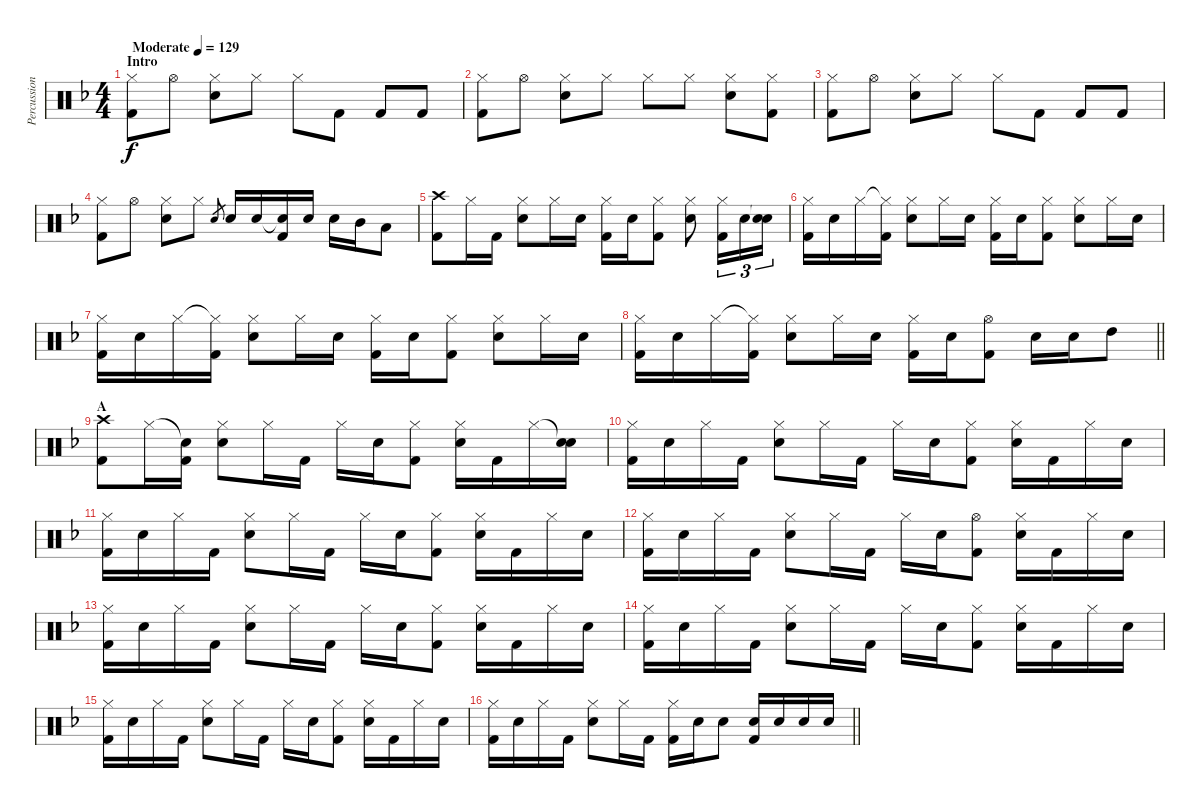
\track ("Percussion" "Percussion") {instrument percussion}
\staff {score}
\articulation defaults
\ts (4 4)
\section ("" "Intro")
\tempo (129 "Moderate")
\clef neutral
\ks f
("Hi-Hat (closed)" "Kick (hit) 2").8{dy f} "Hi-Hat (open)".8 ("Hi-Hat (closed)" "Snare (hit) 2").8 "Hi-Hat (closed)".8 "Hi-Hat (closed)".8 "Kick (hit) 2".8 "Kick (hit) 2".8 "Kick (hit) 2".8 |
("Hi-Hat (closed)" "Kick (hit) 2").8 "Hi-Hat (open)".8 ("Hi-Hat (closed)" "Snare (hit) 2").8 "Hi-Hat (closed)".8 "Hi-Hat (closed)".8 "Hi-Hat (closed)".8 ("Hi-Hat (closed)" "Snare (hit) 2").8 ("Hi-Hat (closed)" "Kick (hit) 2").8 |
("Hi-Hat (closed)" "Kick (hit) 2").8 "Hi-Hat (open)".8 ("Hi-Hat (closed)" "Snare (hit) 2").8 "Hi-Hat (closed)".8 "Hi-Hat (closed)".8 "Kick (hit) 2".8 "Kick (hit) 2".8 "Kick (hit) 2".8 |
("Hi-Hat (closed)" "Kick (hit) 2").8 "Hi-Hat (open)".8 ("Hi-Hat (closed)" "Snare (hit) 2").8 "Hi-Hat (closed)".8 "Electric Snare (hit)".8{gr} "Electric Snare (hit)".16{volume 13} "Electric Snare (hit)".16 ("Snare (hit)"{t} "Kick (hit) 2").16 "Electric Snare (hit)".16 "Electric Snare (hit)".16 "Mid Tom (hit)".16 "Low Tom (hit)".8 |
("Crash high (hit)" "Kick (hit) 2").8 "Hi-Hat (closed)".16 "Kick (hit) 2".16 ("Hi-Hat (closed)" "Electric Snare (hit)").8 "Hi-Hat (closed)".16 "Electric Snare (hit)".16 ("Hi-Hat (closed)" "Kick (hit) 2").16 "Electric Snare (hit)".16 ("Hi-Hat (closed)" "Kick (hit) 2").8 ("Hi-Hat (closed)" "Electric Snare (hit)").8 ("Hi-Hat (closed)" "Kick (hit) 2").16{tu (3 2)} "Electric Snare (hit)".16{tu (3 2)} ("Snare (hit)"{t} "Electric Snare (hit)").16{tu (3 2)} |
("Hi-Hat (closed)" "Kick (hit) 2").16 "Electric Snare (hit)".16 "Hi-Hat (closed)".16 ("Hi-Hat (closed)"{t} "Kick (hit) 2").16 ("Hi-Hat (closed)" "Electric Snare (hit)").8 "Hi-Hat (closed)".16 "Electric Snare (hit)".16 ("Hi-Hat (closed)" "Kick (hit) 2").16 "Electric Snare (hit)".16 ("Hi-Hat (closed)" "Kick (hit) 2").8 ("Hi-Hat (closed)" "Electric Snare (hit)").8 "Hi-Hat (closed)".16 "Electric Snare (hit)".16 |
("Hi-Hat (closed)" "Kick (hit) 2").16 "Electric Snare (hit)".16 "Hi-Hat (closed)".16 ("Hi-Hat (closed)"{t} "Kick (hit) 2").16 ("Hi-Hat (closed)" "Electric Snare (hit)").8 "Hi-Hat (closed)".16 "Electric Snare (hit)".16 ("Hi-Hat (closed)" "Kick (hit) 2").16 "Electric Snare (hit)".16 ("Hi-Hat (closed)" "Kick (hit) 2").8 ("Hi-Hat (closed)" "Electric Snare (hit)").8 "Hi-Hat (closed)".16 "Electric Snare (hit)".16 |
\barLineRight lightlight
("Hi-Hat (closed)" "Kick (hit) 2").16 "Electric Snare (hit)".16 "Hi-Hat (closed)".16 ("Hi-Hat (closed)"{t} "Kick (hit) 2").16 ("Hi-Hat (closed)" "Electric Snare (hit)").8 "Hi-Hat (closed)".16 "Electric Snare (hit)".16 ("Hi-Hat (closed)" "Kick (hit) 2").16 "Electric Snare (hit)".16 ("Hi-Hat (open)" "Kick (hit) 2").8 "Electric Snare (hit)".16 "Electric Snare (hit)".16 "High Tom (hit)".8 |
\section ("" "A")
("Crash high (hit)" "Kick (hit) 2").8 "Hi-Hat (closed)".16 ("Snare (hit)"{t} "Kick (hit) 2").16 ("Hi-Hat (closed)" "Electric Snare (hit)").8 "Hi-Hat (closed)".16 "Kick (hit) 2".16 "Hi-Hat (closed)".16 "Electric Snare (hit)".16 ("Hi-Hat (closed)" "Kick (hit) 2").8 ("Hi-Hat (closed)" "Electric Snare (hit)").16 "Kick (hit) 2".16 "Hi-Hat (closed)".16 ("Snare (hit)"{t} "Electric Snare (hit)").16 |
("Hi-Hat (closed)" "Kick (hit) 2").16 "Electric Snare (hit)".16 "Hi-Hat (closed)".16 "Kick (hit) 2".16 ("Hi-Hat (closed)" "Electric Snare (hit)").8 "Hi-Hat (closed)".16 "Kick (hit) 2".16 "Hi-Hat (closed)".16 "Electric Snare (hit)".16 ("Hi-Hat (closed)" "Kick (hit) 2").8 ("Hi-Hat (closed)" "Electric Snare (hit)").16 "Kick (hit) 2".16 "Hi-Hat (closed)".16 "Electric Snare (hit)".16 |
("Hi-Hat (closed)" "Kick (hit) 2").16 "Electric Snare (hit)".16 "Hi-Hat (closed)".16 "Kick (hit) 2".16 ("Hi-Hat (closed)" "Electric Snare (hit)").8 "Hi-Hat (closed)".16 "Kick (hit) 2".16 "Hi-Hat (closed)".16 "Electric Snare (hit)".16 ("Hi-Hat (closed)" "Kick (hit) 2").8 ("Hi-Hat (closed)" "Electric Snare (hit)").16 "Kick (hit) 2".16 "Hi-Hat (closed)".16 "Electric Snare (hit)".16 |
("Hi-Hat (closed)" "Kick (hit) 2").16 "Electric Snare (hit)".16 "Hi-Hat (closed)".16 "Kick (hit) 2".16 ("Hi-Hat (closed)" "Electric Snare (hit)").8 "Hi-Hat (closed)".16 "Kick (hit) 2".16 "Hi-Hat (closed)".16 "Electric Snare (hit)".16 ("Hi-Hat (open)" "Kick (hit) 2").8 ("Hi-Hat (closed)" "Electric Snare (hit)").16 "Kick (hit) 2".16 "Hi-Hat (closed)".16 "Electric Snare (hit)".16 |
("Hi-Hat (closed)" "Kick (hit) 2").16 "Electric Snare (hit)".16 "Hi-Hat (closed)".16 "Kick (hit) 2".16 ("Hi-Hat (closed)" "Electric Snare (hit)").8 "Hi-Hat (closed)".16 "Kick (hit) 2".16 "Hi-Hat (closed)".16 "Electric Snare (hit)".16 ("Hi-Hat (closed)" "Kick (hit) 2").8 ("Hi-Hat (closed)" "Electric Snare (hit)").16 "Kick (hit) 2".16 "Hi-Hat (closed)".16 "Electric Snare (hit)".16 |
("Hi-Hat (closed)" "Kick (hit) 2").16 "Electric Snare (hit)".16 "Hi-Hat (closed)".16 "Kick (hit) 2".16 ("Hi-Hat (closed)" "Electric Snare (hit)").8 "Hi-Hat (closed)".16 "Kick (hit) 2".16 "Hi-Hat (closed)".16 "Electric Snare (hit)".16 ("Hi-Hat (closed)" "Kick (hit) 2").8 ("Hi-Hat (closed)" "Electric Snare (hit)").16 "Kick (hit) 2".16 "Hi-Hat (closed)".16 "Electric Snare (hit)".16 |
("Hi-Hat (closed)" "Kick (hit) 2").16 "Electric Snare (hit)".16 "Hi-Hat (closed)".16 "Kick (hit) 2".16 ("Hi-Hat (closed)" "Electric Snare (hit)").8 "Hi-Hat (closed)".16 "Kick (hit) 2".16 "Hi-Hat (closed)".16 "Electric Snare (hit)".16 ("Hi-Hat (closed)" "Kick (hit) 2").8 ("Hi-Hat (closed)" "Electric Snare (hit)").16 "Kick (hit) 2".16 "Hi-Hat (closed)".16 "Electric Snare (hit)".16 |
\barLineRight lightlight
("Hi-Hat (closed)" "Kick (hit) 2").16 "Electric Snare (hit)".16 "Hi-Hat (closed)".16 "Kick (hit) 2".16 ("Hi-Hat (closed)" "Electric Snare (hit)").8 "Hi-Hat (closed)".16 "Kick (hit) 2".16 ("Hi-Hat (closed)" "Kick (hit) 2").16 "Electric Snare (hit)".16 "Electric Snare (hit)".8 ("Electric Snare (hit)" "Kick (hit) 2").16 "Electric Snare (hit)".16 "Electric Snare (hit)".16 "Electric Snare (hit)".16
